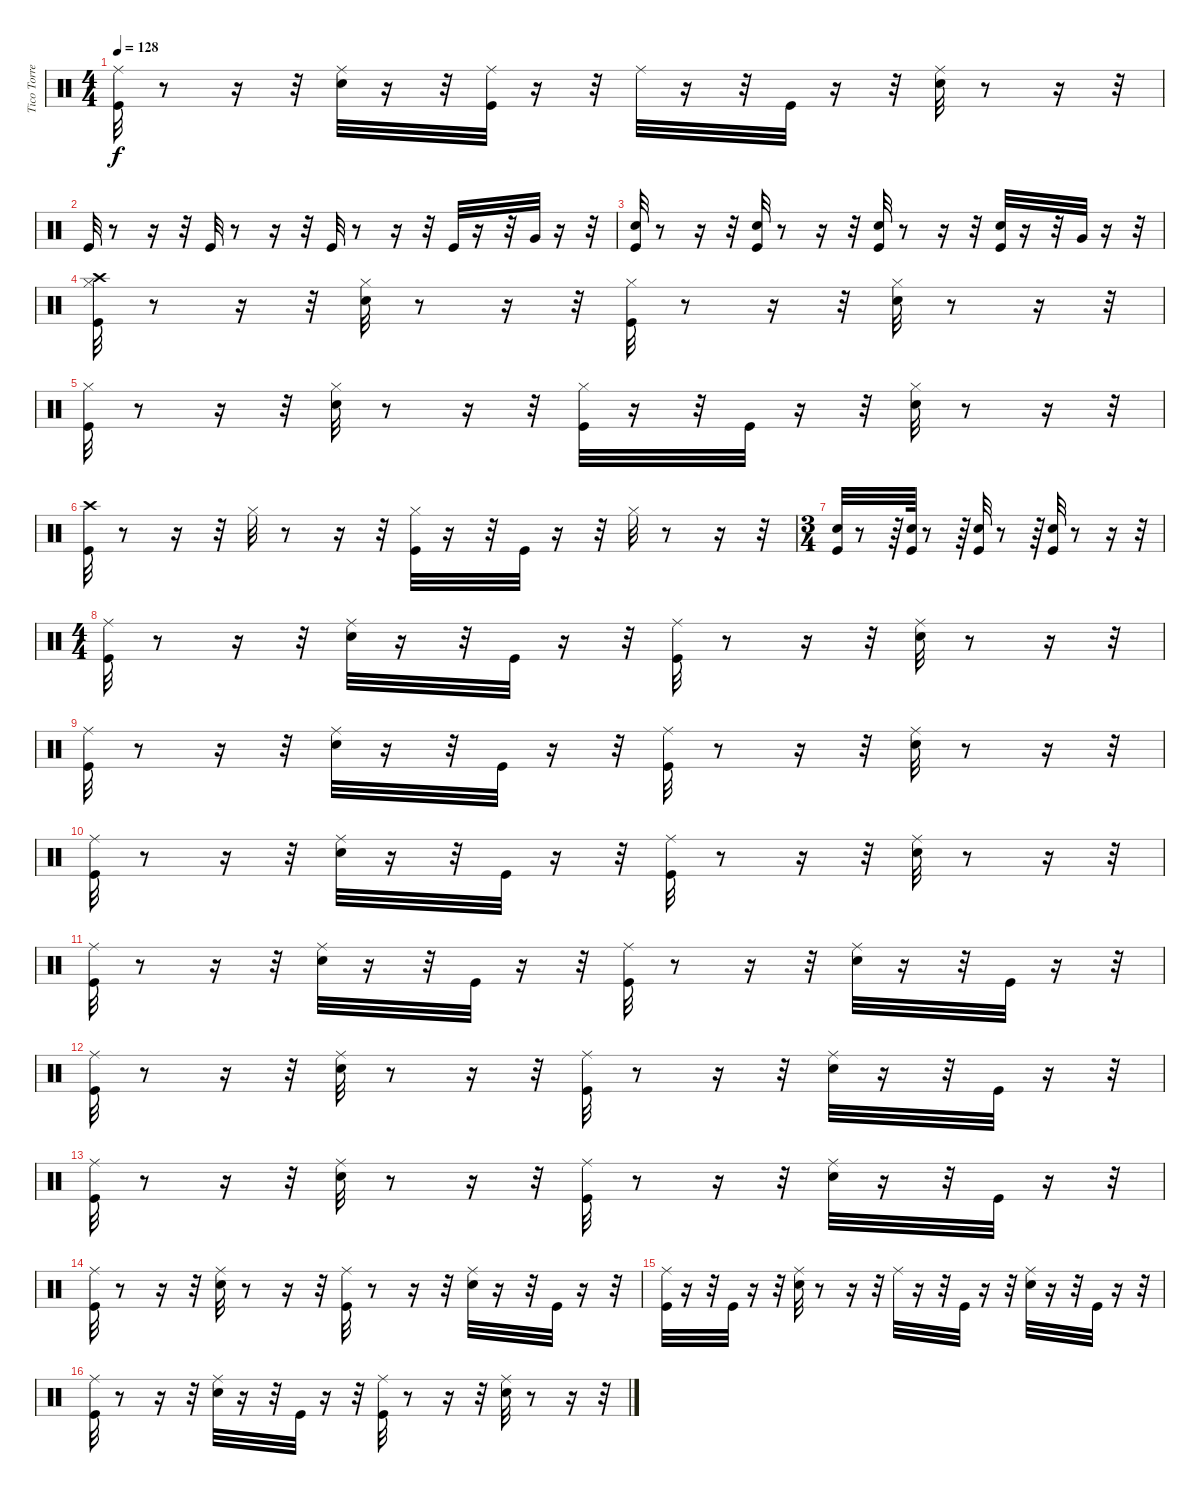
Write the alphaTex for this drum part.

\track ("Tico Torres" "Tico Torre") {instrument percussion}
\staff {score}
\articulation defaults
\ts (4 4)
\tempo 128
\clef neutral
\ks c
("Ride (middle)" "Kick (hit)").32{dy f} r.8 r.16 r.32 ("Ride (middle)" "Snare (hit) 2").32 r.16 r.32 ("Ride (middle)" "Kick (hit)").32 r.16 r.32 "Ride (middle)".32 r.16 r.32 "Kick (hit)".32 r.16 r.32 ("Ride (middle)" "Snare (hit) 2").32 r.8 r.16 r.32 |
"Kick (hit)".32 r.8 r.16 r.32 "Kick (hit)".32 r.8 r.16 r.32 "Kick (hit)".32 r.8 r.16 r.32 "Kick (hit)".32 r.16 r.32 "Very Low Tom (hit)".32 r.16 r.32 |
("Snare (hit) 2" "Kick (hit)").32 r.8 r.16 r.32 ("Snare (hit) 2" "Kick (hit)").32 r.8 r.16 r.32 ("Snare (hit) 2" "Kick (hit)").32 r.8 r.16 r.32 ("Snare (hit) 2" "Kick (hit)").32 r.16 r.32 "Very Low Tom (hit)".32 r.16 r.32 |
("Hi-Hat (closed)" "Kick (hit)" "Crash high (hit)").32 r.8 r.16 r.32 ("Snare (hit) 2" "Hi-Hat (closed)").32 r.8 r.16 r.32 ("Kick (hit)" "Hi-Hat (closed)").32 r.8 r.16 r.32 ("Snare (hit) 2" "Hi-Hat (closed)").32 r.8 r.16 r.32 |
("Hi-Hat (closed)" "Kick (hit)").32 r.8 r.16 r.32 ("Hi-Hat (closed)" "Snare (hit) 2").32 r.8 r.16 r.32 ("Hi-Hat (closed)" "Kick (hit)").32 r.16 r.32 "Kick (hit)".32 r.16 r.32 ("Hi-Hat (closed)" "Snare (hit) 2").32 r.8 r.16 r.32 |
("Crash high (hit)" "Kick (hit)").32 r.8 r.16 r.32 "Hi-Hat (closed)".32 r.8 r.16 r.32 ("Hi-Hat (closed)" "Kick (hit)").32 r.16 r.32 "Kick (hit)".32 r.16 r.32 "Hi-Hat (closed)".32 r.8 r.16 r.32 |
\ts (3 4)
("Snare (hit) 2" "Kick (hit)").32 r.8 r.64 ("Snare (hit) 2" "Kick (hit)").64 r.8 r.64 ("Snare (hit) 2" "Kick (hit)").32 r.8 r.64 ("Snare (hit) 2" "Kick (hit)").32 r.8 r.16 r.32 |
\ts (4 4)
("Ride (middle)" "Kick (hit)").32 r.8 r.16 r.32 ("Ride (middle)" "Snare (hit) 2").32 r.16 r.32 "Kick (hit)".32 r.16 r.32 ("Ride (middle)" "Kick (hit)").32 r.8 r.16 r.32 ("Ride (middle)" "Snare (hit) 2").32 r.8 r.16 r.32 |
("Ride (middle)" "Kick (hit)").32 r.8 r.16 r.32 ("Ride (middle)" "Snare (hit) 2").32 r.16 r.32 "Kick (hit)".32 r.16 r.32 ("Ride (middle)" "Kick (hit)").32 r.8 r.16 r.32 ("Ride (middle)" "Snare (hit) 2").32 r.8 r.16 r.32 |
("Ride (middle)" "Kick (hit)").32 r.8 r.16 r.32 ("Ride (middle)" "Snare (hit) 2").32 r.16 r.32 "Kick (hit)".32 r.16 r.32 ("Ride (middle)" "Kick (hit)").32 r.8 r.16 r.32 ("Ride (middle)" "Snare (hit) 2").32 r.8 r.16 r.32 |
("Ride (middle)" "Kick (hit)").32 r.8 r.16 r.32 ("Ride (middle)" "Snare (hit) 2").32 r.16 r.32 "Kick (hit)".32 r.16 r.32 ("Ride (middle)" "Kick (hit)").32 r.8 r.16 r.32 ("Ride (middle)" "Snare (hit) 2").32 r.16 r.32 "Kick (hit)".32 r.16 r.32 |
("Ride (middle)" "Kick (hit)").32 r.8 r.16 r.32 ("Ride (middle)" "Snare (hit) 2").32 r.8 r.16 r.32 ("Ride (middle)" "Kick (hit)").32 r.8 r.16 r.32 ("Ride (middle)" "Snare (hit) 2").32 r.16 r.32 "Kick (hit)".32 r.16 r.32 |
("Ride (middle)" "Kick (hit)").32 r.8 r.16 r.32 ("Ride (middle)" "Snare (hit) 2").32 r.8 r.16 r.32 ("Ride (middle)" "Kick (hit)").32 r.8 r.16 r.32 ("Ride (middle)" "Snare (hit) 2").32 r.16 r.32 "Kick (hit)".32 r.16 r.32 |
("Ride (middle)" "Kick (hit)").32 r.8 r.16 r.32 ("Ride (middle)" "Snare (hit) 2").32 r.8 r.16 r.32 ("Ride (middle)" "Kick (hit)").32 r.8 r.16 r.32 ("Ride (middle)" "Snare (hit) 2").32 r.16 r.32 "Kick (hit)".32 r.16 r.32 |
("Ride (middle)" "Kick (hit)").32 r.16 r.32 "Kick (hit)".32 r.16 r.32 ("Ride (middle)" "Snare (hit) 2").32 r.8 r.16 r.32 "Ride (middle)".32 r.16 r.32 "Kick (hit)".32 r.16 r.32 ("Ride (middle)" "Snare (hit) 2").32 r.16 r.32 "Kick (hit)".32 r.16 r.32 |
("Ride (middle)" "Kick (hit)").32 r.8 r.16 r.32 ("Ride (middle)" "Snare (hit) 2").32 r.16 r.32 "Kick (hit)".32 r.16 r.32 ("Ride (middle)" "Kick (hit)").32 r.8 r.16 r.32 ("Ride (middle)" "Snare (hit) 2").32 r.8 r.16 r.32
